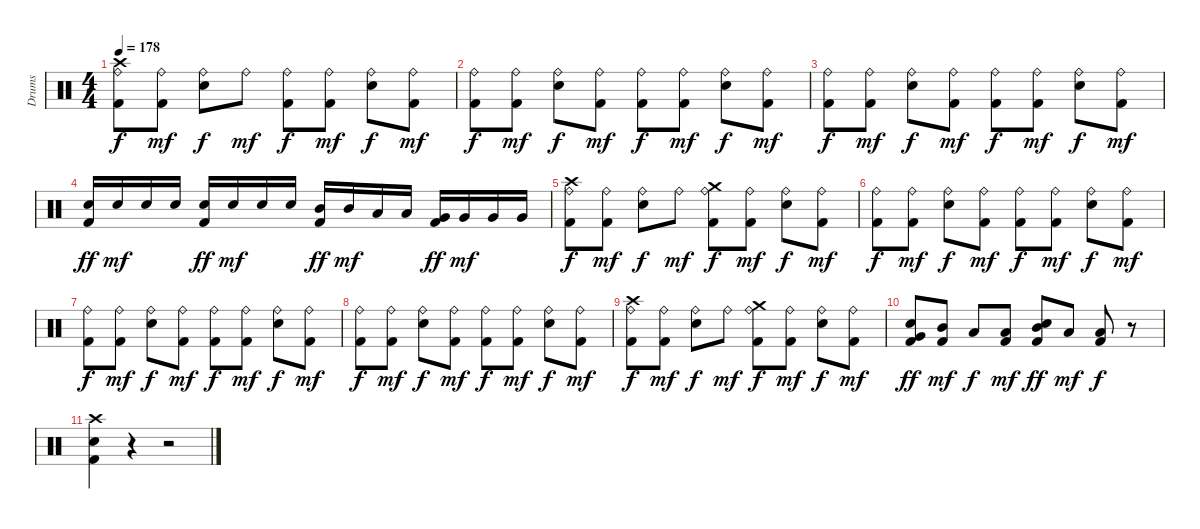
\track ("Drums" "Drums") {instrument percussion}
\staff {score}
\articulation defaults
\ts (4 4)
\tempo 178
\clef neutral
\ks c
("Crash high (hit)" "Ride (bell)" "Kick (hit) 2").8{dy f} ("Ride (bell)" "Kick (hit) 2").8{dy mf} ("Ride (bell)" "Electric Snare (hit)").8{dy f} "Ride (bell)".8{dy mf} ("Ride (bell)" "Kick (hit) 2").8{dy f} ("Ride (bell)" "Kick (hit) 2").8{dy mf} ("Ride (bell)" "Electric Snare (hit)").8{dy f} ("Ride (bell)" "Kick (hit) 2").8{dy mf} |
("Ride (bell)" "Kick (hit) 2").8{dy f} ("Ride (bell)" "Kick (hit) 2").8{dy mf} ("Ride (bell)" "Electric Snare (hit)").8{dy f} ("Ride (bell)" "Kick (hit) 2").8{dy mf} ("Ride (bell)" "Kick (hit) 2").8{dy f} ("Ride (bell)" "Kick (hit) 2").8{dy mf} ("Ride (bell)" "Electric Snare (hit)").8{dy f} ("Ride (bell)" "Kick (hit) 2").8{dy mf} |
("Ride (bell)" "Kick (hit) 2").8{dy f} ("Ride (bell)" "Kick (hit) 2").8{dy mf} ("Ride (bell)" "Electric Snare (hit)").8{dy f} ("Ride (bell)" "Kick (hit) 2").8{dy mf} ("Ride (bell)" "Kick (hit) 2").8{dy f} ("Ride (bell)" "Kick (hit) 2").8{dy mf} ("Ride (bell)" "Electric Snare (hit)").8{dy f} ("Ride (bell)" "Kick (hit) 2").8{dy mf} |
("Electric Snare (hit)" "Kick (hit) 2").16{dy ff} "Electric Snare (hit)".16{dy mf} "Electric Snare (hit)".16 "Electric Snare (hit)".16 ("Electric Snare (hit)" "Kick (hit) 2").16{dy ff} "Electric Snare (hit)".16{dy mf} "Electric Snare (hit)".16 "Electric Snare (hit)".16 ("Mid Tom (hit)" "Kick (hit) 2").16{dy ff} "Mid Tom (hit)".16{dy mf} "Low Tom (hit)".16 "Low Tom (hit)".16 ("Very Low Tom (hit)" "Kick (hit) 2").16{dy ff} "Very Low Tom (hit)".16{dy mf} "Very Low Tom (hit)".16 "Very Low Tom (hit)".16 |
("Crash high (hit)" "Ride (bell)" "Kick (hit) 2").8{dy f} ("Ride (bell)" "Kick (hit) 2").8{dy mf} ("Ride (bell)" "Electric Snare (hit)").8{dy f} "Ride (bell)".8{dy mf} ("Crash medium (hit)" "Ride (bell)" "Kick (hit) 2").8{dy f} ("Ride (bell)" "Kick (hit) 2").8{dy mf} ("Ride (bell)" "Electric Snare (hit)").8{dy f} ("Ride (bell)" "Kick (hit) 2").8{dy mf} |
("Ride (bell)" "Kick (hit) 2").8{dy f} ("Ride (bell)" "Kick (hit) 2").8{dy mf} ("Ride (bell)" "Electric Snare (hit)").8{dy f} ("Ride (bell)" "Kick (hit) 2").8{dy mf} ("Ride (bell)" "Kick (hit) 2").8{dy f} ("Ride (bell)" "Kick (hit) 2").8{dy mf} ("Ride (bell)" "Electric Snare (hit)").8{dy f} ("Ride (bell)" "Kick (hit) 2").8{dy mf} |
("Ride (bell)" "Kick (hit) 2").8{dy f} ("Ride (bell)" "Kick (hit) 2").8{dy mf} ("Ride (bell)" "Electric Snare (hit)").8{dy f} ("Ride (bell)" "Kick (hit) 2").8{dy mf} ("Ride (bell)" "Kick (hit) 2").8{dy f} ("Ride (bell)" "Kick (hit) 2").8{dy mf} ("Ride (bell)" "Electric Snare (hit)").8{dy f} ("Ride (bell)" "Kick (hit) 2").8{dy mf} |
("Ride (bell)" "Kick (hit) 2").8{dy f} ("Ride (bell)" "Kick (hit) 2").8{dy mf} ("Ride (bell)" "Electric Snare (hit)").8{dy f} ("Ride (bell)" "Kick (hit) 2").8{dy mf} ("Ride (bell)" "Kick (hit) 2").8{dy f} ("Ride (bell)" "Kick (hit) 2").8{dy mf} ("Ride (bell)" "Electric Snare (hit)").8{dy f} ("Ride (bell)" "Kick (hit) 2").8{dy mf} |
("Crash high (hit)" "Ride (bell)" "Kick (hit) 2").8{dy f} ("Ride (bell)" "Kick (hit) 2").8{dy mf} ("Ride (bell)" "Electric Snare (hit)").8{dy f} "Ride (bell)".8{dy mf} ("Crash medium (hit)" "Ride (bell)" "Kick (hit) 2").8{dy f} ("Ride (bell)" "Kick (hit) 2").8{dy mf} ("Ride (bell)" "Electric Snare (hit)").8{dy f} ("Ride (bell)" "Kick (hit) 2").8{dy mf} |
("Very Low Tom (hit)" "Electric Snare (hit)" "Kick (hit) 2").8{dy ff} ("Mid Tom (hit)" "Kick (hit) 2").8{dy mf} "Low Tom (hit)".8{dy f} ("Low Tom (hit)" "Kick (hit) 2").8{dy mf} ("Mid Tom (hit)" "Electric Snare (hit)" "Kick (hit) 2").8{dy ff} "Low Tom (hit)".8{dy mf} ("Low Tom (hit)" "Kick (hit) 2").8{dy f} r.8 |
("Crash high (hit)" "Electric Snare (hit)" "Kick (hit) 2").4 r.4 r.2
